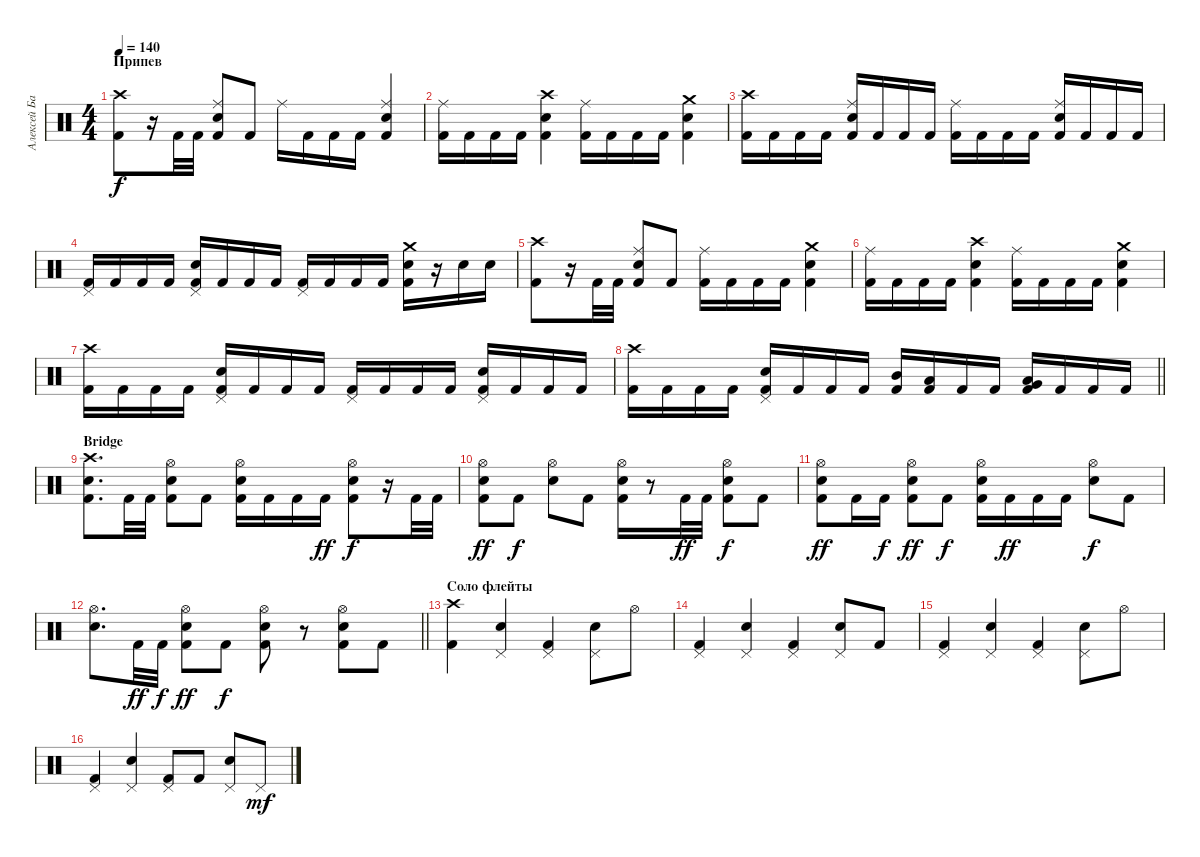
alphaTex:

\track ("Алексей Барзилович" "Алексей Ба") {instrument percussion}
\staff {score}
\articulation defaults
\ts (4 4)
\section ("" "Припев")
\tempo 140
\clef neutral
\ks c
("Crash high (hit)" "Kick (hit) 2").8{dy f} r.16 "Kick (hit) 2".32 "Kick (hit) 2".32 ("Ride (middle)" "Electric Snare (hit)" "Kick (hit) 2").8 "Kick (hit) 2".8 "Ride (middle)".16 "Kick (hit) 2".16 "Kick (hit) 2".16 "Kick (hit) 2".16 ("Ride (middle)" "Electric Snare (hit)" "Kick (hit) 2").4 |
("Ride (middle)" "Kick (hit) 2").16 "Kick (hit) 2".16 "Kick (hit) 2".16 "Kick (hit) 2".16 ("Crash high (hit)" "Electric Snare (hit)" "Kick (hit) 2").4 ("Ride (middle)" "Kick (hit) 2").16 "Kick (hit) 2".16 "Kick (hit) 2".16 "Kick (hit) 2".16 ("Crash medium (hit)" "Electric Snare (hit)" "Kick (hit) 2").4 |
("Crash high (hit)" "Kick (hit) 2").16 "Kick (hit) 2".16 "Kick (hit) 2".16 "Kick (hit) 2".16 ("Ride (middle)" "Electric Snare (hit)" "Kick (hit) 2").16 "Kick (hit) 2".16 "Kick (hit) 2".16 "Kick (hit) 2".16 ("Ride (middle)" "Kick (hit) 2").16 "Kick (hit) 2".16 "Kick (hit) 2".16 "Kick (hit) 2".16 ("Ride (middle)" "Electric Snare (hit)" "Kick (hit) 2").16 "Kick (hit) 2".16 "Kick (hit) 2".16 "Kick (hit) 2".16 |
("Pedal Hi-Hat (hit)" "Kick (hit) 2").16 "Kick (hit) 2".16 "Kick (hit) 2".16 "Kick (hit) 2".16 ("Pedal Hi-Hat (hit)" "Electric Snare (hit)" "Kick (hit) 2").16 "Kick (hit) 2".16 "Kick (hit) 2".16 "Kick (hit) 2".16 ("Pedal Hi-Hat (hit)" "Kick (hit) 2").16 "Kick (hit) 2".16 "Kick (hit) 2".16 "Kick (hit) 2".16 ("Crash medium (hit)" "Electric Snare (hit)" "Kick (hit) 2").16 r.16 "Electric Snare (hit)".16 "Electric Snare (hit)".16 |
("Crash high (hit)" "Kick (hit) 2").8 r.16 "Kick (hit) 2".32 "Kick (hit) 2".32 ("Ride (middle)" "Electric Snare (hit)" "Kick (hit) 2").8 "Kick (hit) 2".8 ("Ride (middle)" "Kick (hit) 2").16 "Kick (hit) 2".16 "Kick (hit) 2".16 "Kick (hit) 2".16 ("Crash medium (hit)" "Electric Snare (hit)" "Kick (hit) 2").4 |
("Ride (middle)" "Kick (hit) 2").16 "Kick (hit) 2".16 "Kick (hit) 2".16 "Kick (hit) 2".16 ("Crash high (hit)" "Electric Snare (hit)" "Kick (hit) 2").4 ("Ride (middle)" "Kick (hit) 2").16 "Kick (hit) 2".16 "Kick (hit) 2".16 "Kick (hit) 2".16 ("Crash medium (hit)" "Electric Snare (hit)" "Kick (hit) 2").4 |
("Crash high (hit)" "Kick (hit) 2").16 "Kick (hit) 2".16 "Kick (hit) 2".16 "Kick (hit) 2".16 ("Pedal Hi-Hat (hit)" "Electric Snare (hit)" "Kick (hit) 2").16 "Kick (hit) 2".16 "Kick (hit) 2".16 "Kick (hit) 2".16 ("Pedal Hi-Hat (hit)" "Kick (hit) 2").16 "Kick (hit) 2".16 "Kick (hit) 2".16 "Kick (hit) 2".16 ("Pedal Hi-Hat (hit)" "Electric Snare (hit)" "Kick (hit) 2").16 "Kick (hit) 2".16 "Kick (hit) 2".16 "Kick (hit) 2".16 |
\barLineRight lightlight
("Crash high (hit)" "Kick (hit) 2").16 "Kick (hit) 2".16 "Kick (hit) 2".16 "Kick (hit) 2".16 ("Pedal Hi-Hat (hit)" "Electric Snare (hit)" "Kick (hit) 2").16 "Kick (hit) 2".16 "Kick (hit) 2".16 "Kick (hit) 2".16 ("Mid Tom (hit)" "Kick (hit) 2").16 ("Low Tom (hit)" "Kick (hit) 2").16 "Kick (hit) 2".16 "Kick (hit) 2".16 ("Very Low Tom (hit)" "Low Floor Tom (hit)" "Kick (hit) 2").16 "Kick (hit) 2".16 "Kick (hit) 2".16 "Kick (hit) 2".16 |
\section ("" "Bridge")
("Crash high (hit)" "Electric Snare (hit)" "Kick (hit) 2").8{d} "Kick (hit) 2".32 "Kick (hit) 2".32 ("Hi-Hat (open)" "Electric Snare (hit)" "Kick (hit) 2").8 "Kick (hit) 2".8 ("Hi-Hat (open)" "Electric Snare (hit)" "Kick (hit) 2").16 "Kick (hit) 2".16 "Kick (hit) 2".16 "Kick (hit) 2".16{dy ff} ("Hi-Hat (open)" "Electric Snare (hit)" "Kick (hit) 2").8{dy f} r.16 "Kick (hit) 2".32 "Kick (hit) 2".32 |
("Hi-Hat (open)" "Electric Snare (hit)" "Kick (hit) 2").8{dy ff} "Kick (hit) 2".8{dy f} ("Hi-Hat (open)" "Electric Snare (hit)").8 "Kick (hit) 2".8 ("Hi-Hat (open)" "Electric Snare (hit)" "Kick (hit) 2").16 r.8 "Kick (hit) 2".32{dy ff} "Kick (hit) 2".32 ("Hi-Hat (open)" "Electric Snare (hit)" "Kick (hit) 2").8{dy f} "Kick (hit) 2".8 |
("Hi-Hat (open)" "Electric Snare (hit)" "Kick (hit) 2").8{dy ff} "Kick (hit) 2".16 "Kick (hit) 2".16{dy f} ("Hi-Hat (open)" "Electric Snare (hit)" "Kick (hit) 2").8{dy ff} "Kick (hit) 2".8{dy f} ("Hi-Hat (open)" "Electric Snare (hit)" "Kick (hit) 2").16 "Kick (hit) 2".16{dy ff} "Kick (hit) 2".16 "Kick (hit) 2".16 ("Hi-Hat (open)" "Electric Snare (hit)").8{dy f} "Kick (hit) 2".8 |
\barLineRight lightlight
("Hi-Hat (open)" "Electric Snare (hit)").8{d} "Kick (hit) 2".32{dy ff} "Kick (hit) 2".32{dy f} ("Hi-Hat (open)" "Electric Snare (hit)" "Kick (hit) 2").8{dy ff} "Kick (hit) 2".8{dy f} ("Hi-Hat (open)" "Electric Snare (hit)" "Kick (hit) 2").8 r.8 ("Hi-Hat (open)" "Electric Snare (hit)" "Kick (hit) 2").8 "Kick (hit) 2".8 |
\section ("" "Соло флейты")
("Crash high (hit)" "Kick (hit) 2").4 ("Pedal Hi-Hat (hit)" "Electric Snare (hit)").4 ("Pedal Hi-Hat (hit)" "Kick (hit) 2").4 ("Pedal Hi-Hat (hit)" "Electric Snare (hit)").8 "Hi-Hat (open)".8 |
("Pedal Hi-Hat (hit)" "Kick (hit) 2").4 ("Pedal Hi-Hat (hit)" "Electric Snare (hit)").4 ("Pedal Hi-Hat (hit)" "Kick (hit) 2").4 ("Pedal Hi-Hat (hit)" "Electric Snare (hit)").8 "Kick (hit) 2".8 |
("Pedal Hi-Hat (hit)" "Kick (hit) 2").4 ("Pedal Hi-Hat (hit)" "Electric Snare (hit)").4 ("Pedal Hi-Hat (hit)" "Kick (hit) 2").4 ("Pedal Hi-Hat (hit)" "Electric Snare (hit)").8 "Hi-Hat (open)".8 |
("Pedal Hi-Hat (hit)" "Kick (hit) 2").4 ("Pedal Hi-Hat (hit)" "Electric Snare (hit)").4 ("Pedal Hi-Hat (hit)" "Kick (hit) 2").8 "Kick (hit) 2".8 ("Pedal Hi-Hat (hit)" "Electric Snare (hit)").8 "Pedal Hi-Hat (hit)".8{dy mf}
